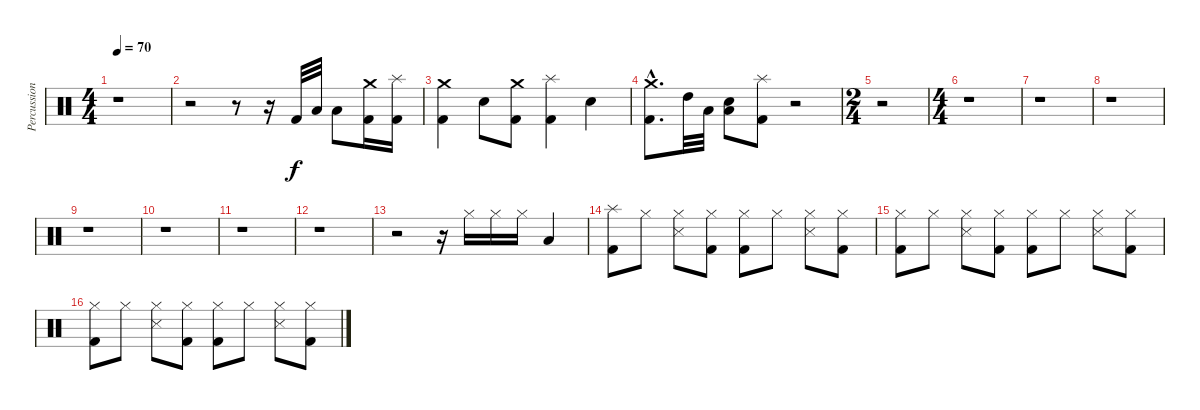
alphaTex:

\track ("Percussion" "Percussion") {instrument percussion}
\staff {score}
\articulation defaults
\ts (4 4)
\tempo 70
\clef neutral
\ks c
r.1{dy f} |
r.2 r.8 r.16 "Kick (hit) 2".32 "Low Tom (hit)".32 "Low Floor Tom (hit)".8 ("Crash medium (hit)" "Kick (hit) 2").16 ("Splash (hit)" "Kick (hit) 2").16 |
("Crash medium (hit)" "Kick (hit) 2").4 "Snare (hit) 2".8 ("Crash medium (hit)" "Kick (hit) 2").8 ("Splash (hit)" "Kick (hit) 2").4 "Snare (hit) 2".4 |
("Crash medium (hit)"{hac} "Kick (hit) 2"{hac}).8{d} "High Tom (hit)".32 "Low Tom (hit)".32 ("Snare (hit) 2" "Low Floor Tom (hit)").8 ("Splash (hit)" "Kick (hit) 2").8 r.2 |
\ts (2 4)
r.2 |
\ts (4 4)
r.1 |
r.1 |
r.1 |
r.1 |
r.1 |
r.1 |
r.1 |
r.2 r.16 "Hi-Hat (closed)".16 "Hi-Hat (closed)".16 "Hi-Hat (closed)".16 "Low Tom (hit)".4 |
("Splash (hit)" "Kick (hit) 2").8 "Hi-Hat (closed)".8 ("Hi-Hat (closed)" "Snare (side stick) 3").8 ("Hi-Hat (closed)" "Kick (hit) 2").8 ("Hi-Hat (closed)" "Kick (hit) 2").8 "Hi-Hat (closed)".8 ("Hi-Hat (closed)" "Snare (side stick) 3").8 ("Hi-Hat (closed)" "Kick (hit) 2").8 |
("Hi-Hat (closed)" "Kick (hit) 2").8 "Hi-Hat (closed)".8 ("Hi-Hat (closed)" "Snare (side stick) 3").8 ("Hi-Hat (closed)" "Kick (hit) 2").8 ("Hi-Hat (closed)" "Kick (hit) 2").8 "Hi-Hat (closed)".8 ("Hi-Hat (closed)" "Snare (side stick) 3").8 ("Hi-Hat (closed)" "Kick (hit) 2").8 |
("Hi-Hat (closed)" "Kick (hit) 2").8 "Hi-Hat (closed)".8 ("Hi-Hat (closed)" "Snare (side stick) 3").8 ("Hi-Hat (closed)" "Kick (hit) 2").8 ("Hi-Hat (closed)" "Kick (hit) 2").8 "Hi-Hat (closed)".8 ("Hi-Hat (closed)" "Snare (side stick) 3").8 ("Hi-Hat (closed)" "Kick (hit) 2").8
